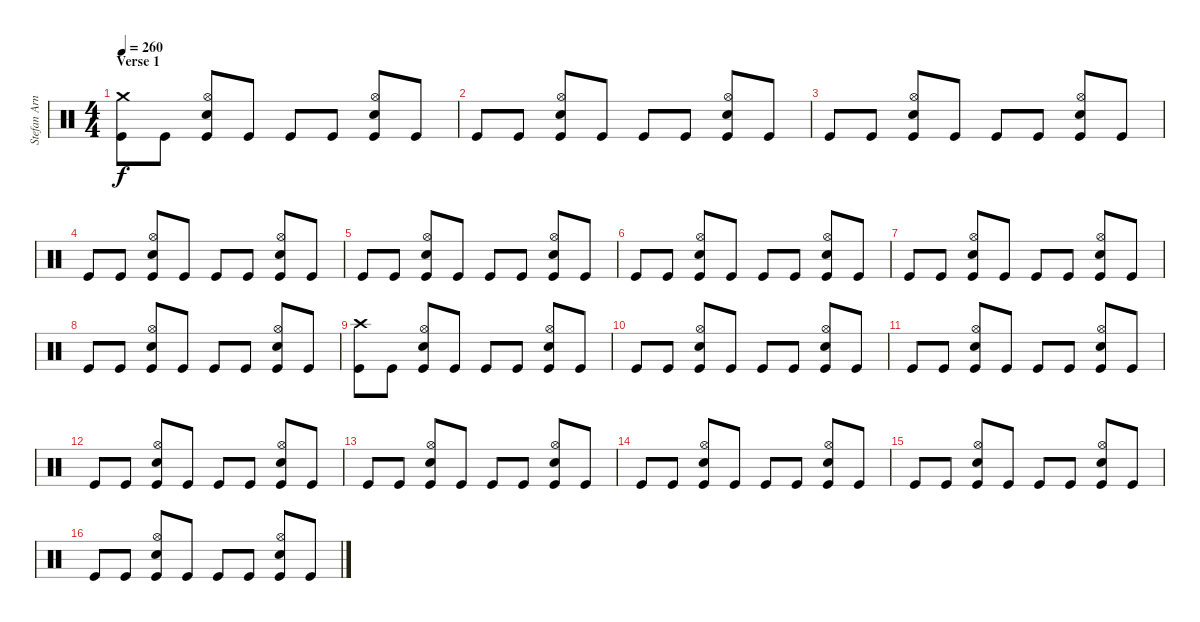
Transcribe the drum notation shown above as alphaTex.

\track ("Stefan Arnold" "Stefan Arn") {instrument percussion}
\staff {score}
\articulation defaults
\ts (4 4)
\section ("" "Verse 1")
\tempo 260
\clef neutral
\ks c
("Crash medium (hit)" "Kick (hit)").8{dy f} "Kick (hit)".8 ("Hi-Hat (open)" "Electric Snare (hit)" "Kick (hit)").8 "Kick (hit)".8 "Kick (hit)".8 "Kick (hit)".8 ("Hi-Hat (open)" "Electric Snare (hit)" "Kick (hit)").8 "Kick (hit)".8 |
"Kick (hit)".8 "Kick (hit)".8 ("Hi-Hat (open)" "Electric Snare (hit)" "Kick (hit)").8 "Kick (hit)".8 "Kick (hit)".8 "Kick (hit)".8 ("Hi-Hat (open)" "Electric Snare (hit)" "Kick (hit)").8 "Kick (hit)".8 |
"Kick (hit)".8 "Kick (hit)".8 ("Hi-Hat (open)" "Electric Snare (hit)" "Kick (hit)").8 "Kick (hit)".8 "Kick (hit)".8 "Kick (hit)".8 ("Hi-Hat (open)" "Electric Snare (hit)" "Kick (hit)").8 "Kick (hit)".8 |
"Kick (hit)".8 "Kick (hit)".8 ("Hi-Hat (open)" "Electric Snare (hit)" "Kick (hit)").8 "Kick (hit)".8 "Kick (hit)".8 "Kick (hit)".8 ("Hi-Hat (open)" "Electric Snare (hit)" "Kick (hit)").8 "Kick (hit)".8 |
"Kick (hit)".8 "Kick (hit)".8 ("Hi-Hat (open)" "Electric Snare (hit)" "Kick (hit)").8 "Kick (hit)".8 "Kick (hit)".8 "Kick (hit)".8 ("Hi-Hat (open)" "Electric Snare (hit)" "Kick (hit)").8 "Kick (hit)".8 |
"Kick (hit)".8 "Kick (hit)".8 ("Hi-Hat (open)" "Electric Snare (hit)" "Kick (hit)").8 "Kick (hit)".8 "Kick (hit)".8 "Kick (hit)".8 ("Hi-Hat (open)" "Electric Snare (hit)" "Kick (hit)").8 "Kick (hit)".8 |
"Kick (hit)".8 "Kick (hit)".8 ("Hi-Hat (open)" "Electric Snare (hit)" "Kick (hit)").8 "Kick (hit)".8 "Kick (hit)".8 "Kick (hit)".8 ("Hi-Hat (open)" "Electric Snare (hit)" "Kick (hit)").8 "Kick (hit)".8 |
"Kick (hit)".8 "Kick (hit)".8 ("Hi-Hat (open)" "Electric Snare (hit)" "Kick (hit)").8 "Kick (hit)".8 "Kick (hit)".8 "Kick (hit)".8 ("Hi-Hat (open)" "Electric Snare (hit)" "Kick (hit)").8 "Kick (hit)".8 |
("Crash high (hit)" "Kick (hit)").8 "Kick (hit)".8 ("Hi-Hat (open)" "Electric Snare (hit)" "Kick (hit)").8 "Kick (hit)".8 "Kick (hit)".8 "Kick (hit)".8 ("Hi-Hat (open)" "Electric Snare (hit)" "Kick (hit)").8 "Kick (hit)".8 |
"Kick (hit)".8 "Kick (hit)".8 ("Hi-Hat (open)" "Electric Snare (hit)" "Kick (hit)").8 "Kick (hit)".8 "Kick (hit)".8 "Kick (hit)".8 ("Hi-Hat (open)" "Electric Snare (hit)" "Kick (hit)").8 "Kick (hit)".8 |
"Kick (hit)".8 "Kick (hit)".8 ("Hi-Hat (open)" "Electric Snare (hit)" "Kick (hit)").8 "Kick (hit)".8 "Kick (hit)".8 "Kick (hit)".8 ("Hi-Hat (open)" "Electric Snare (hit)" "Kick (hit)").8 "Kick (hit)".8 |
"Kick (hit)".8 "Kick (hit)".8 ("Hi-Hat (open)" "Electric Snare (hit)" "Kick (hit)").8 "Kick (hit)".8 "Kick (hit)".8 "Kick (hit)".8 ("Hi-Hat (open)" "Electric Snare (hit)" "Kick (hit)").8 "Kick (hit)".8 |
"Kick (hit)".8 "Kick (hit)".8 ("Hi-Hat (open)" "Electric Snare (hit)" "Kick (hit)").8 "Kick (hit)".8 "Kick (hit)".8 "Kick (hit)".8 ("Hi-Hat (open)" "Electric Snare (hit)" "Kick (hit)").8 "Kick (hit)".8 |
"Kick (hit)".8 "Kick (hit)".8 ("Hi-Hat (open)" "Electric Snare (hit)" "Kick (hit)").8 "Kick (hit)".8 "Kick (hit)".8 "Kick (hit)".8 ("Hi-Hat (open)" "Electric Snare (hit)" "Kick (hit)").8 "Kick (hit)".8 |
"Kick (hit)".8 "Kick (hit)".8 ("Hi-Hat (open)" "Electric Snare (hit)" "Kick (hit)").8 "Kick (hit)".8 "Kick (hit)".8 "Kick (hit)".8 ("Hi-Hat (open)" "Electric Snare (hit)" "Kick (hit)").8 "Kick (hit)".8 |
"Kick (hit)".8 "Kick (hit)".8 ("Hi-Hat (open)" "Electric Snare (hit)" "Kick (hit)").8 "Kick (hit)".8 "Kick (hit)".8 "Kick (hit)".8 ("Hi-Hat (open)" "Electric Snare (hit)" "Kick (hit)").8 "Kick (hit)".8
